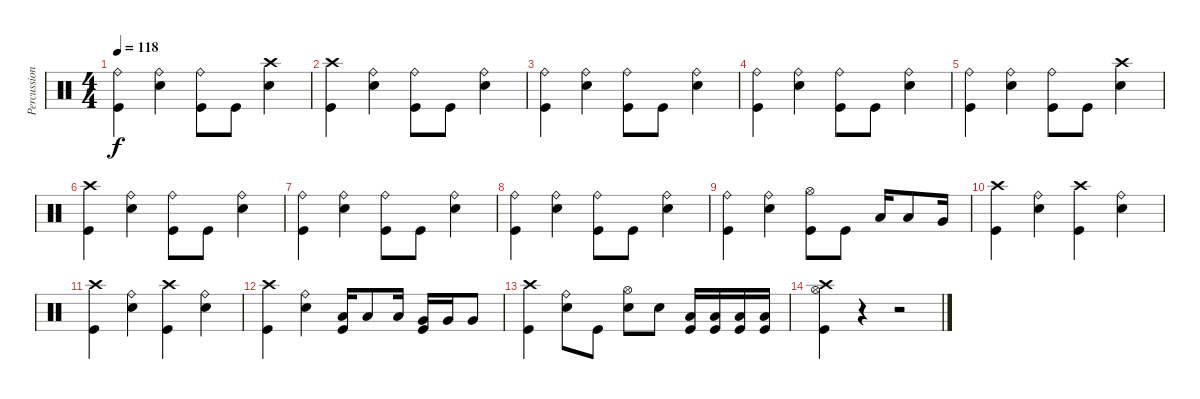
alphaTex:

\track ("Percussion" "Percussion") {instrument percussion}
\staff {score}
\articulation defaults
\ts (4 4)
\tempo 118
\clef neutral
\ks c
("Ride (bell)" "Kick (hit)").4{dy f} ("Ride (bell)" "Electric Snare (hit)").4 ("Ride (bell)" "Kick (hit)").8 "Kick (hit)".8 ("Crash high (hit)" "Electric Snare (hit)").4 |
("Crash high (hit)" "Kick (hit)").4 ("Ride (bell)" "Electric Snare (hit)").4 ("Ride (bell)" "Kick (hit)").8 "Kick (hit)".8 ("Ride (bell)" "Electric Snare (hit)").4 |
("Ride (bell)" "Kick (hit)").4 ("Ride (bell)" "Electric Snare (hit)").4 ("Ride (bell)" "Kick (hit)").8 "Kick (hit)".8 ("Ride (bell)" "Electric Snare (hit)").4 |
("Ride (bell)" "Kick (hit)").4 ("Ride (bell)" "Electric Snare (hit)").4 ("Ride (bell)" "Kick (hit)").8 "Kick (hit)".8 ("Ride (bell)" "Electric Snare (hit)").4 |
("Ride (bell)" "Kick (hit)").4 ("Ride (bell)" "Electric Snare (hit)").4 ("Ride (bell)" "Kick (hit)").8 "Kick (hit)".8 ("Crash high (hit)" "Electric Snare (hit)").4 |
("Crash high (hit)" "Kick (hit)").4 ("Ride (bell)" "Electric Snare (hit)").4 ("Ride (bell)" "Kick (hit)").8 "Kick (hit)".8 ("Ride (bell)" "Electric Snare (hit)").4 |
("Ride (bell)" "Kick (hit)").4 ("Ride (bell)" "Electric Snare (hit)").4 ("Ride (bell)" "Kick (hit)").8 "Kick (hit)".8 ("Ride (bell)" "Electric Snare (hit)").4 |
("Ride (bell)" "Kick (hit)").4 ("Ride (bell)" "Electric Snare (hit)").4 ("Ride (bell)" "Kick (hit)").8 "Kick (hit)".8 ("Ride (bell)" "Electric Snare (hit)").4 |
("Ride (bell)" "Kick (hit)").4 ("Ride (bell)" "Electric Snare (hit)").4 ("Hi-Hat (open)" "Kick (hit)").8 "Kick (hit)".8 "Low Tom (hit)".16 "Low Tom (hit)".8 "Very Low Tom (hit)".16 |
("Crash high (hit)" "Kick (hit)").4 ("Ride (bell)" "Electric Snare (hit)").4 ("Crash high (hit)" "Kick (hit)").4 ("Ride (bell)" "Electric Snare (hit)").4 |
("Crash high (hit)" "Kick (hit)").4 ("Ride (bell)" "Electric Snare (hit)").4 ("Crash high (hit)" "Kick (hit)").4 ("Ride (bell)" "Electric Snare (hit)").4 |
("Crash high (hit)" "Kick (hit)").4 ("Ride (bell)" "Electric Snare (hit)").4 ("Low Tom (hit)" "Kick (hit)").16 "Low Tom (hit)".8 "Low Tom (hit)".16 ("Very Low Tom (hit)" "Kick (hit)").16 "Very Low Tom (hit)".16 "Very Low Tom (hit)".8 |
("Crash high (hit)" "Kick (hit)").4 ("Ride (bell)" "Electric Snare (hit)").8 "Kick (hit)".8 ("Hi-Hat (open)" "Snare (hit) 2").8 "Snare (hit) 2".8 ("Low Tom (hit)" "Kick (hit)").16 ("Low Tom (hit)" "Kick (hit)").16 ("Low Tom (hit)" "Kick (hit)").16 ("Low Tom (hit)" "Kick (hit)").16 |
("Crash high (hit)" "Hi-Hat (open)" "Kick (hit)").4 r.4 r.2
